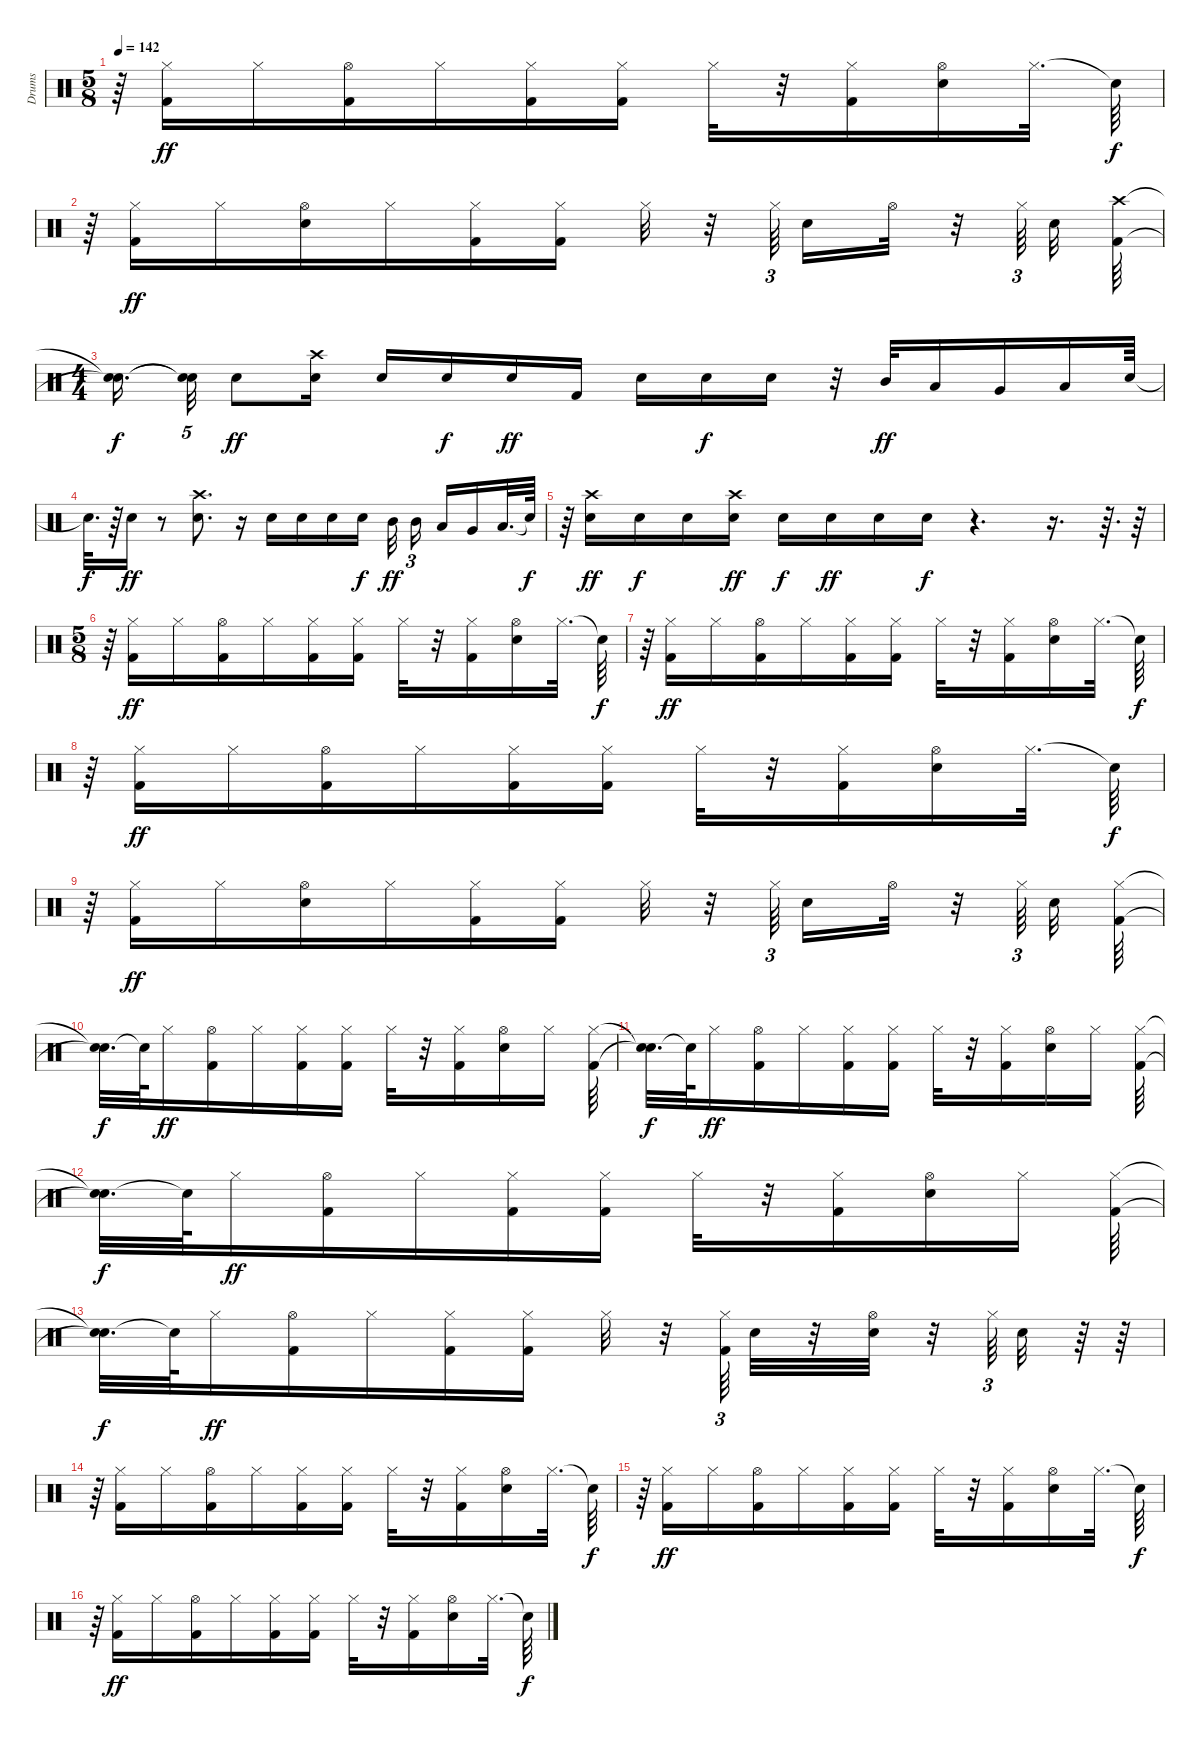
\track ("Drums                               " "Drums     ") {instrument percussion}
\staff {score}
\articulation defaults
\ts (5 8)
\tempo 142
\clef neutral
\ks c
r.64{dy f} ("Kick (hit) 2" "Hi-Hat (closed)").16{dy ff} "Hi-Hat (closed)".16 ("Hi-Hat (open)" "Kick (hit) 2").16 "Hi-Hat (closed)".16 ("Kick (hit) 2" "Hi-Hat (closed)").16 ("Kick (hit) 2" "Hi-Hat (closed)").16 "Hi-Hat (closed)".32 r.32 ("Kick (hit) 2" "Hi-Hat (closed)").16 ("Snare (hit) 2" "Hi-Hat (open)").16 "Hi-Hat (closed)".32{d} "Snare (hit)"{t}.64{dy f} |
r.64 ("Hi-Hat (closed)" "Kick (hit) 2").16{dy ff} "Hi-Hat (closed)".16 ("Snare (hit) 2" "Hi-Hat (open)").16 "Hi-Hat (closed)".16 ("Hi-Hat (closed)" "Kick (hit) 2").16 ("Kick (hit) 2" "Hi-Hat (closed)").16 "Hi-Hat (closed)".32 r.32 "Hi-Hat (closed)".64{tu (3 2)} "Snare (hit) 2".16 "Hi-Hat (open)".32 r.32 "Hi-Hat (closed)".64{tu (3 2)} "Snare (hit) 2".32 ("Kick (hit) 2" "Crash high (hit)").64 |
\ts (4 4)
("Snare (hit)"{t} "Snare (hit)"{t}).16{d dy f} ("Snare (hit)"{t} "Snare (hit)"{t}).32{tu (5 4)} "Snare (hit) 2".8{dy ff} ("Snare (hit) 2" "Crash high (hit)").16 "Snare (hit) 2".16 "Snare (hit) 2".16{dy f} "Snare (hit) 2".16{dy ff} "Kick (hit) 2".16 "Snare (hit) 2".16 "Snare (hit) 2".16{dy f} "Snare (hit) 2".16 r.32 "Mid Tom (hit)".32{dy ff} "Low Tom (hit)".16 "Very Low Tom (hit)".16 "Low Floor Tom (hit)".16 "Snare (hit) 2".64 |
"Snare (hit)"{t}.32{d dy f} r.64 "Snare (hit) 2".16{dy ff} r.8 ("Snare (hit) 2" "Crash high (hit)").8{d} r.16 "Snare (hit) 2".16 "Snare (hit) 2".16 "Snare (hit) 2".16 "Snare (hit) 2".16{dy f} "Mid Tom (hit)".32{dy ff} "Mid Tom (hit)".16{tu (3 2)} "Low Tom (hit)".16 "Very Low Tom (hit)".16 "Low Floor Tom (hit)".32{d} "Snare (hit)"{t}.64{dy f} |
r.64 ("Snare (hit) 2" "Crash high (hit)").16{dy ff} "Snare (hit) 2".16{dy f} "Snare (hit) 2".16 ("Snare (hit) 2" "Crash high (hit)").16{dy ff} "Snare (hit) 2".16{dy f} "Snare (hit) 2".16{dy ff} "Snare (hit) 2".16 "Snare (hit) 2".16{dy f} r.4{d} r.16{d} r.64{d} r.64 |
\ts (5 8)
r.64 ("Hi-Hat (closed)" "Kick (hit) 2").16{dy ff} "Hi-Hat (closed)".16 ("Hi-Hat (open)" "Kick (hit) 2").16 "Hi-Hat (closed)".16 ("Hi-Hat (closed)" "Kick (hit) 2").16 ("Kick (hit) 2" "Hi-Hat (closed)").16 "Hi-Hat (closed)".32 r.32 ("Kick (hit) 2" "Hi-Hat (closed)").16 ("Snare (hit) 2" "Hi-Hat (open)").16 "Hi-Hat (closed)".32{d} "Snare (hit)"{t}.64{dy f} |
r.64 ("Hi-Hat (closed)" "Kick (hit) 2").16{dy ff} "Hi-Hat (closed)".16 ("Hi-Hat (open)" "Kick (hit) 2").16 "Hi-Hat (closed)".16 ("Hi-Hat (closed)" "Kick (hit) 2").16 ("Kick (hit) 2" "Hi-Hat (closed)").16 "Hi-Hat (closed)".32 r.32 ("Kick (hit) 2" "Hi-Hat (closed)").16 ("Snare (hit) 2" "Hi-Hat (open)").16 "Hi-Hat (closed)".32{d} "Snare (hit)"{t}.64{dy f} |
r.64 ("Hi-Hat (closed)" "Kick (hit) 2").16{dy ff} "Hi-Hat (closed)".16 ("Hi-Hat (open)" "Kick (hit) 2").16 "Hi-Hat (closed)".16 ("Hi-Hat (closed)" "Kick (hit) 2").16 ("Kick (hit) 2" "Hi-Hat (closed)").16 "Hi-Hat (closed)".32 r.32 ("Kick (hit) 2" "Hi-Hat (closed)").16 ("Hi-Hat (open)" "Snare (hit) 2").16 "Hi-Hat (closed)".32{d} "Snare (hit)"{t}.64{dy f} |
r.64 ("Hi-Hat (closed)" "Kick (hit) 2").16{dy ff} "Hi-Hat (closed)".16 ("Hi-Hat (open)" "Snare (hit) 2").16 "Hi-Hat (closed)".16 ("Hi-Hat (closed)" "Kick (hit) 2").16 ("Kick (hit) 2" "Hi-Hat (closed)").16 "Hi-Hat (closed)".32 r.32 "Hi-Hat (closed)".64{tu (3 2)} "Snare (hit) 2".16 "Hi-Hat (open)".32 r.32 "Hi-Hat (closed)".64{tu (3 2)} "Snare (hit) 2".32 ("Kick (hit) 2" "Hi-Hat (closed)").64 |
("Snare (hit)"{t} "Snare (hit)"{t}).32{d dy f} "Snare (hit)"{t}.64 "Hi-Hat (closed)".16{dy ff} ("Hi-Hat (open)" "Kick (hit) 2").16 "Hi-Hat (closed)".16 ("Kick (hit) 2" "Hi-Hat (closed)").16 ("Kick (hit) 2" "Hi-Hat (closed)").16 "Hi-Hat (closed)".32 r.32 ("Kick (hit) 2" "Hi-Hat (closed)").16 ("Snare (hit) 2" "Hi-Hat (open)").16 "Hi-Hat (closed)".16 ("Hi-Hat (closed)" "Kick (hit) 2").64 |
("Snare (hit)"{t} "Snare (hit)"{t}).32{d dy f} "Snare (hit)"{t}.64 "Hi-Hat (closed)".16{dy ff} ("Hi-Hat (open)" "Kick (hit) 2").16 "Hi-Hat (closed)".16 ("Hi-Hat (closed)" "Kick (hit) 2").16 ("Kick (hit) 2" "Hi-Hat (closed)").16 "Hi-Hat (closed)".32 r.32 ("Kick (hit) 2" "Hi-Hat (closed)").16 ("Hi-Hat (open)" "Snare (hit) 2").16 "Hi-Hat (closed)".16 ("Kick (hit) 2" "Hi-Hat (closed)").64 |
("Snare (hit)"{t} "Snare (hit)"{t}).32{d dy f} "Snare (hit)"{t}.64 "Hi-Hat (closed)".16{dy ff} ("Hi-Hat (open)" "Kick (hit) 2").16 "Hi-Hat (closed)".16 ("Hi-Hat (closed)" "Kick (hit) 2").16 ("Kick (hit) 2" "Hi-Hat (closed)").16 "Hi-Hat (closed)".32 r.32 ("Kick (hit) 2" "Hi-Hat (closed)").16 ("Snare (hit) 2" "Hi-Hat (open)").16 "Hi-Hat (closed)".16 ("Kick (hit) 2" "Hi-Hat (closed)").64 |
("Snare (hit)"{t} "Snare (hit)"{t}).32{d dy f} "Snare (hit)"{t}.64 "Hi-Hat (closed)".16{dy ff} ("Hi-Hat (open)" "Kick (hit) 2").16 "Hi-Hat (closed)".16 ("Kick (hit) 2" "Hi-Hat (closed)").16 ("Kick (hit) 2" "Hi-Hat (closed)").16 "Hi-Hat (closed)".32 r.32 ("Kick (hit) 2" "Hi-Hat (closed)").64{tu (3 2)} "Snare (hit) 2".32 r.32 ("Hi-Hat (open)" "Snare (hit) 2").32 r.32 "Hi-Hat (closed)".64{tu (3 2)} "Snare (hit) 2".32 r.64 r.64 |
r.64 ("Hi-Hat (closed)" "Kick (hit) 2").16 "Hi-Hat (closed)".16 ("Hi-Hat (open)" "Kick (hit) 2").16 "Hi-Hat (closed)".16 ("Hi-Hat (closed)" "Kick (hit) 2").16 ("Kick (hit) 2" "Hi-Hat (closed)").16 "Hi-Hat (closed)".32 r.32 ("Kick (hit) 2" "Hi-Hat (closed)").16 ("Hi-Hat (open)" "Snare (hit) 2").16 "Hi-Hat (closed)".32{d} "Snare (hit)"{t}.64{dy f} |
r.64 ("Hi-Hat (closed)" "Kick (hit) 2").16{dy ff} "Hi-Hat (closed)".16 ("Hi-Hat (open)" "Kick (hit) 2").16 "Hi-Hat (closed)".16 ("Kick (hit) 2" "Hi-Hat (closed)").16 ("Kick (hit) 2" "Hi-Hat (closed)").16 "Hi-Hat (closed)".32 r.32 ("Kick (hit) 2" "Hi-Hat (closed)").16 ("Snare (hit) 2" "Hi-Hat (open)").16 "Hi-Hat (closed)".32{d} "Snare (hit)"{t}.64{dy f} |
r.64 ("Hi-Hat (closed)" "Kick (hit) 2").16{dy ff} "Hi-Hat (closed)".16 ("Hi-Hat (open)" "Kick (hit) 2").16 "Hi-Hat (closed)".16 ("Hi-Hat (closed)" "Kick (hit) 2").16 ("Kick (hit) 2" "Hi-Hat (closed)").16 "Hi-Hat (closed)".32 r.32 ("Kick (hit) 2" "Hi-Hat (closed)").16 ("Hi-Hat (open)" "Snare (hit) 2").16 "Hi-Hat (closed)".32{d} "Snare (hit)"{t}.64{dy f}
